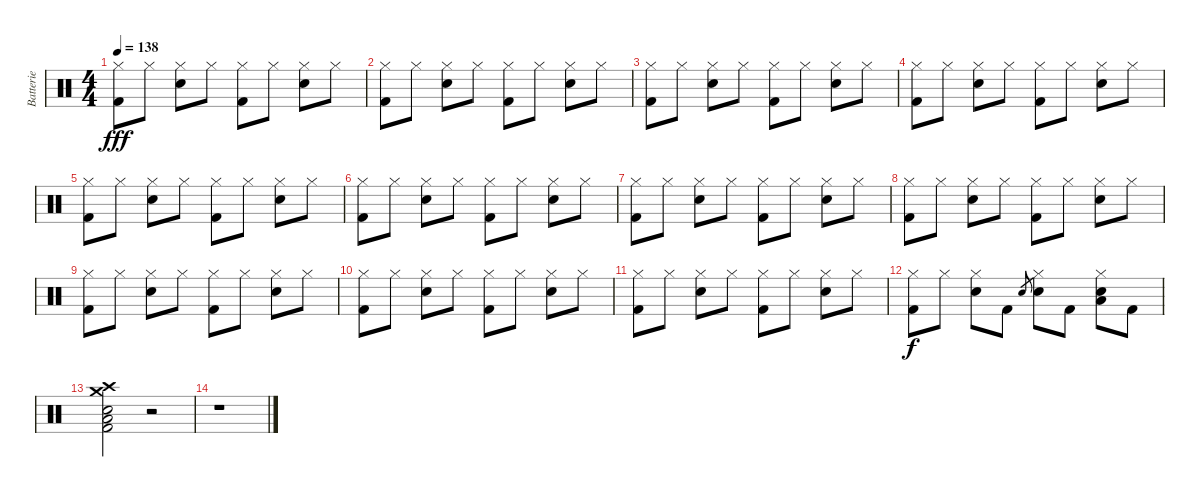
\track ("Batterie" "Batterie") {instrument percussion}
\staff {score}
\articulation defaults
\ts (4 4)
\tempo 138
\clef neutral
\ks c
("Hi-Hat (closed)" "Kick (hit) 2").8{dy fff} "Hi-Hat (closed)".8 ("Hi-Hat (closed)" "Electric Snare (hit)").8 "Hi-Hat (closed)".8 ("Hi-Hat (closed)" "Kick (hit) 2").8 "Hi-Hat (closed)".8 ("Hi-Hat (closed)" "Electric Snare (hit)").8 "Hi-Hat (closed)".8 |
("Hi-Hat (closed)" "Kick (hit) 2").8 "Hi-Hat (closed)".8 ("Hi-Hat (closed)" "Electric Snare (hit)").8 "Hi-Hat (closed)".8 ("Hi-Hat (closed)" "Kick (hit) 2").8 "Hi-Hat (closed)".8 ("Hi-Hat (closed)" "Electric Snare (hit)").8 "Hi-Hat (closed)".8 |
("Hi-Hat (closed)" "Kick (hit) 2").8 "Hi-Hat (closed)".8 ("Hi-Hat (closed)" "Electric Snare (hit)").8 "Hi-Hat (closed)".8 ("Hi-Hat (closed)" "Kick (hit) 2").8 "Hi-Hat (closed)".8 ("Hi-Hat (closed)" "Electric Snare (hit)").8 "Hi-Hat (closed)".8 |
("Hi-Hat (closed)" "Kick (hit) 2").8 "Hi-Hat (closed)".8 ("Hi-Hat (closed)" "Electric Snare (hit)").8 "Hi-Hat (closed)".8 ("Hi-Hat (closed)" "Kick (hit) 2").8 "Hi-Hat (closed)".8 ("Hi-Hat (closed)" "Electric Snare (hit)").8 "Hi-Hat (closed)".8 |
("Hi-Hat (closed)" "Kick (hit) 2").8 "Hi-Hat (closed)".8 ("Hi-Hat (closed)" "Electric Snare (hit)").8 "Hi-Hat (closed)".8 ("Hi-Hat (closed)" "Kick (hit) 2").8 "Hi-Hat (closed)".8 ("Hi-Hat (closed)" "Electric Snare (hit)").8 "Hi-Hat (closed)".8 |
("Hi-Hat (closed)" "Kick (hit) 2").8 "Hi-Hat (closed)".8 ("Hi-Hat (closed)" "Electric Snare (hit)").8 "Hi-Hat (closed)".8 ("Hi-Hat (closed)" "Kick (hit) 2").8 "Hi-Hat (closed)".8 ("Hi-Hat (closed)" "Electric Snare (hit)").8 "Hi-Hat (closed)".8 |
("Hi-Hat (closed)" "Kick (hit) 2").8 "Hi-Hat (closed)".8 ("Hi-Hat (closed)" "Electric Snare (hit)").8 "Hi-Hat (closed)".8 ("Hi-Hat (closed)" "Kick (hit) 2").8 "Hi-Hat (closed)".8 ("Hi-Hat (closed)" "Electric Snare (hit)").8 "Hi-Hat (closed)".8 |
("Hi-Hat (closed)" "Kick (hit) 2").8 "Hi-Hat (closed)".8 ("Hi-Hat (closed)" "Electric Snare (hit)").8 "Hi-Hat (closed)".8 ("Hi-Hat (closed)" "Kick (hit) 2").8 "Hi-Hat (closed)".8 ("Hi-Hat (closed)" "Electric Snare (hit)").8 "Hi-Hat (closed)".8 |
("Hi-Hat (closed)" "Kick (hit) 2").8 "Hi-Hat (closed)".8 ("Hi-Hat (closed)" "Electric Snare (hit)").8 "Hi-Hat (closed)".8 ("Hi-Hat (closed)" "Kick (hit) 2").8 "Hi-Hat (closed)".8 ("Hi-Hat (closed)" "Electric Snare (hit)").8 "Hi-Hat (closed)".8 |
("Hi-Hat (closed)" "Kick (hit) 2").8 "Hi-Hat (closed)".8 ("Hi-Hat (closed)" "Electric Snare (hit)").8 "Hi-Hat (closed)".8 ("Hi-Hat (closed)" "Kick (hit) 2").8 "Hi-Hat (closed)".8 ("Hi-Hat (closed)" "Electric Snare (hit)").8 "Hi-Hat (closed)".8 |
("Hi-Hat (closed)" "Kick (hit) 2").8 "Hi-Hat (closed)".8 ("Hi-Hat (closed)" "Electric Snare (hit)").8 "Hi-Hat (closed)".8 ("Hi-Hat (closed)" "Kick (hit) 2").8 "Hi-Hat (closed)".8 ("Hi-Hat (closed)" "Electric Snare (hit)").8 "Hi-Hat (closed)".8 |
("Hi-Hat (closed)" "Kick (hit) 2").8{dy f} "Hi-Hat (closed)".8 ("Hi-Hat (closed)" "Electric Snare (hit)").8 "Kick (hit) 2".8 "Electric Snare (hit)".8{gr} ("Hi-Hat (closed)" "Electric Snare (hit)").8 "Kick (hit) 2".8 ("Hi-Hat (closed)" "Low Floor Tom (hit)" "Electric Snare (hit)").8 "Kick (hit) 2".8 |
("Crash high (hit)" "Crash medium (hit)" "Low Floor Tom (hit)" "Electric Snare (hit)" "Kick (hit) 2").2 r.2 |
r.1
